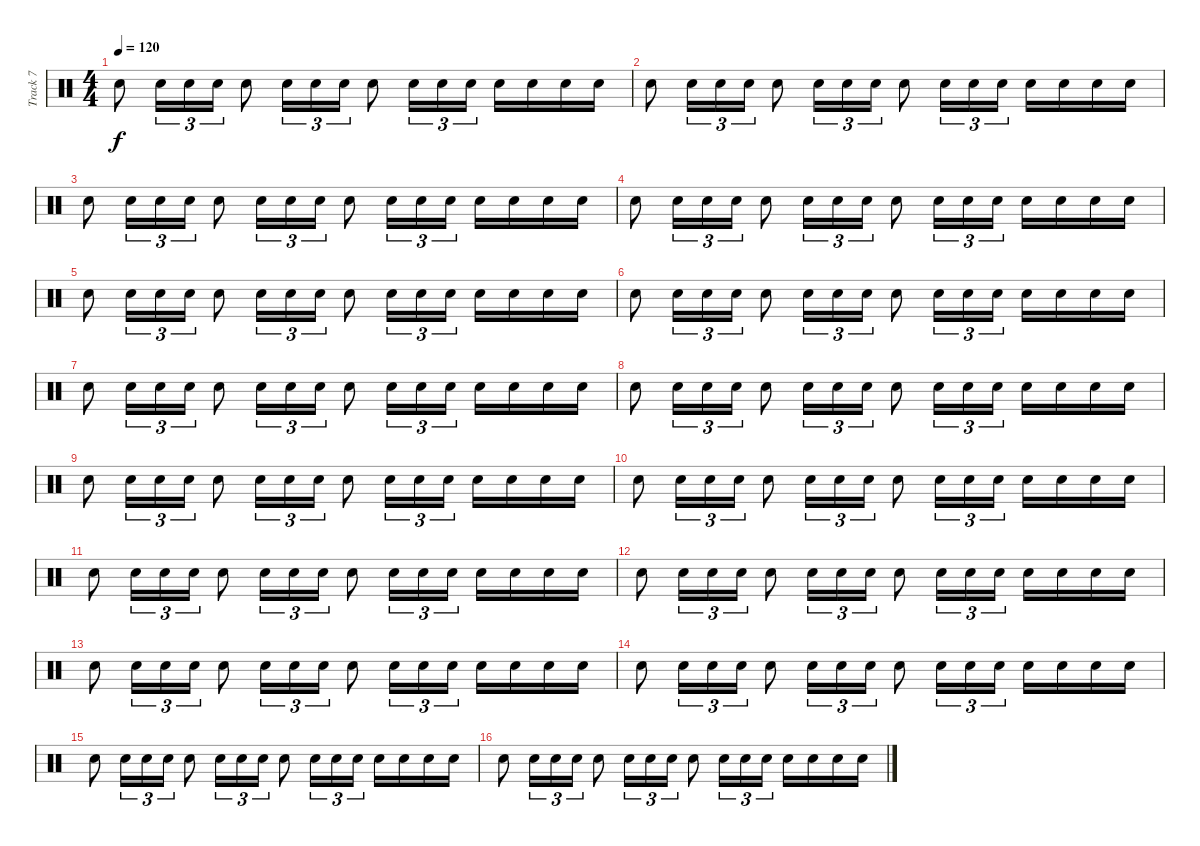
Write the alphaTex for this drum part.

\track ("Track 7" "Track 7") {instrument percussion}
\staff {score}
\articulation defaults
\ts (4 4)
\tempo 120
\clef neutral
\ks c "Snare (hit) 2".8{dy f} "Snare (hit) 2".16{tu (3 2)} "Snare (hit) 2".16{tu (3 2)} "Snare (hit) 2".16{tu (3 2)} "Snare (hit) 2".8 "Snare (hit) 2".16{tu (3 2)} "Snare (hit) 2".16{tu (3 2)} "Snare (hit) 2".16{tu (3 2)} "Snare (hit) 2".8 "Snare (hit) 2".16{tu (3 2)} "Snare (hit) 2".16{tu (3 2)} "Snare (hit) 2".16{tu (3 2)} "Snare (hit) 2".16 "Snare (hit) 2".16 "Snare (hit) 2".16 "Snare (hit) 2".16
|
"Snare (hit) 2".8 "Snare (hit) 2".16{tu (3 2)} "Snare (hit) 2".16{tu (3 2)} "Snare (hit) 2".16{tu (3 2)} "Snare (hit) 2".8 "Snare (hit) 2".16{tu (3 2)} "Snare (hit) 2".16{tu (3 2)} "Snare (hit) 2".16{tu (3 2)} "Snare (hit) 2".8 "Snare (hit) 2".16{tu (3 2)} "Snare (hit) 2".16{tu (3 2)} "Snare (hit) 2".16{tu (3 2)} "Snare (hit) 2".16 "Snare (hit) 2".16 "Snare (hit) 2".16 "Snare (hit) 2".16 |
"Snare (hit) 2".8 "Snare (hit) 2".16{tu (3 2)} "Snare (hit) 2".16{tu (3 2)} "Snare (hit) 2".16{tu (3 2)} "Snare (hit) 2".8 "Snare (hit) 2".16{tu (3 2)} "Snare (hit) 2".16{tu (3 2)} "Snare (hit) 2".16{tu (3 2)} "Snare (hit) 2".8 "Snare (hit) 2".16{tu (3 2)} "Snare (hit) 2".16{tu (3 2)} "Snare (hit) 2".16{tu (3 2)} "Snare (hit) 2".16 "Snare (hit) 2".16 "Snare (hit) 2".16 "Snare (hit) 2".16 |
"Snare (hit) 2".8 "Snare (hit) 2".16{tu (3 2)} "Snare (hit) 2".16{tu (3 2)} "Snare (hit) 2".16{tu (3 2)} "Snare (hit) 2".8 "Snare (hit) 2".16{tu (3 2)} "Snare (hit) 2".16{tu (3 2)} "Snare (hit) 2".16{tu (3 2)} "Snare (hit) 2".8 "Snare (hit) 2".16{tu (3 2)} "Snare (hit) 2".16{tu (3 2)} "Snare (hit) 2".16{tu (3 2)} "Snare (hit) 2".16 "Snare (hit) 2".16 "Snare (hit) 2".16 "Snare (hit) 2".16 |
"Snare (hit) 2".8 "Snare (hit) 2".16{tu (3 2)} "Snare (hit) 2".16{tu (3 2)} "Snare (hit) 2".16{tu (3 2)} "Snare (hit) 2".8 "Snare (hit) 2".16{tu (3 2)} "Snare (hit) 2".16{tu (3 2)} "Snare (hit) 2".16{tu (3 2)} "Snare (hit) 2".8 "Snare (hit) 2".16{tu (3 2)} "Snare (hit) 2".16{tu (3 2)} "Snare (hit) 2".16{tu (3 2)} "Snare (hit) 2".16 "Snare (hit) 2".16 "Snare (hit) 2".16 "Snare (hit) 2".16 |
"Snare (hit) 2".8 "Snare (hit) 2".16{tu (3 2)} "Snare (hit) 2".16{tu (3 2)} "Snare (hit) 2".16{tu (3 2)} "Snare (hit) 2".8 "Snare (hit) 2".16{tu (3 2)} "Snare (hit) 2".16{tu (3 2)} "Snare (hit) 2".16{tu (3 2)} "Snare (hit) 2".8 "Snare (hit) 2".16{tu (3 2)} "Snare (hit) 2".16{tu (3 2)} "Snare (hit) 2".16{tu (3 2)} "Snare (hit) 2".16 "Snare (hit) 2".16 "Snare (hit) 2".16 "Snare (hit) 2".16 |
"Snare (hit) 2".8 "Snare (hit) 2".16{tu (3 2)} "Snare (hit) 2".16{tu (3 2)} "Snare (hit) 2".16{tu (3 2)} "Snare (hit) 2".8 "Snare (hit) 2".16{tu (3 2)} "Snare (hit) 2".16{tu (3 2)} "Snare (hit) 2".16{tu (3 2)} "Snare (hit) 2".8 "Snare (hit) 2".16{tu (3 2)} "Snare (hit) 2".16{tu (3 2)} "Snare (hit) 2".16{tu (3 2)} "Snare (hit) 2".16 "Snare (hit) 2".16 "Snare (hit) 2".16 "Snare (hit) 2".16 |
"Snare (hit) 2".8 "Snare (hit) 2".16{tu (3 2)} "Snare (hit) 2".16{tu (3 2)} "Snare (hit) 2".16{tu (3 2)} "Snare (hit) 2".8 "Snare (hit) 2".16{tu (3 2)} "Snare (hit) 2".16{tu (3 2)} "Snare (hit) 2".16{tu (3 2)} "Snare (hit) 2".8 "Snare (hit) 2".16{tu (3 2)} "Snare (hit) 2".16{tu (3 2)} "Snare (hit) 2".16{tu (3 2)} "Snare (hit) 2".16 "Snare (hit) 2".16 "Snare (hit) 2".16 "Snare (hit) 2".16 |
"Snare (hit) 2".8 "Snare (hit) 2".16{tu (3 2)} "Snare (hit) 2".16{tu (3 2)} "Snare (hit) 2".16{tu (3 2)} "Snare (hit) 2".8 "Snare (hit) 2".16{tu (3 2)} "Snare (hit) 2".16{tu (3 2)} "Snare (hit) 2".16{tu (3 2)} "Snare (hit) 2".8 "Snare (hit) 2".16{tu (3 2)} "Snare (hit) 2".16{tu (3 2)} "Snare (hit) 2".16{tu (3 2)} "Snare (hit) 2".16 "Snare (hit) 2".16 "Snare (hit) 2".16 "Snare (hit) 2".16 |
"Snare (hit) 2".8 "Snare (hit) 2".16{tu (3 2)} "Snare (hit) 2".16{tu (3 2)} "Snare (hit) 2".16{tu (3 2)} "Snare (hit) 2".8 "Snare (hit) 2".16{tu (3 2)} "Snare (hit) 2".16{tu (3 2)} "Snare (hit) 2".16{tu (3 2)} "Snare (hit) 2".8 "Snare (hit) 2".16{tu (3 2)} "Snare (hit) 2".16{tu (3 2)} "Snare (hit) 2".16{tu (3 2)} "Snare (hit) 2".16 "Snare (hit) 2".16 "Snare (hit) 2".16 "Snare (hit) 2".16 |
"Snare (hit) 2".8 "Snare (hit) 2".16{tu (3 2)} "Snare (hit) 2".16{tu (3 2)} "Snare (hit) 2".16{tu (3 2)} "Snare (hit) 2".8 "Snare (hit) 2".16{tu (3 2)} "Snare (hit) 2".16{tu (3 2)} "Snare (hit) 2".16{tu (3 2)} "Snare (hit) 2".8 "Snare (hit) 2".16{tu (3 2)} "Snare (hit) 2".16{tu (3 2)} "Snare (hit) 2".16{tu (3 2)} "Snare (hit) 2".16 "Snare (hit) 2".16 "Snare (hit) 2".16 "Snare (hit) 2".16 |
"Snare (hit) 2".8 "Snare (hit) 2".16{tu (3 2)} "Snare (hit) 2".16{tu (3 2)} "Snare (hit) 2".16{tu (3 2)} "Snare (hit) 2".8 "Snare (hit) 2".16{tu (3 2)} "Snare (hit) 2".16{tu (3 2)} "Snare (hit) 2".16{tu (3 2)} "Snare (hit) 2".8 "Snare (hit) 2".16{tu (3 2)} "Snare (hit) 2".16{tu (3 2)} "Snare (hit) 2".16{tu (3 2)} "Snare (hit) 2".16 "Snare (hit) 2".16 "Snare (hit) 2".16 "Snare (hit) 2".16 |
"Snare (hit) 2".8 "Snare (hit) 2".16{tu (3 2)} "Snare (hit) 2".16{tu (3 2)} "Snare (hit) 2".16{tu (3 2)} "Snare (hit) 2".8 "Snare (hit) 2".16{tu (3 2)} "Snare (hit) 2".16{tu (3 2)} "Snare (hit) 2".16{tu (3 2)} "Snare (hit) 2".8 "Snare (hit) 2".16{tu (3 2)} "Snare (hit) 2".16{tu (3 2)} "Snare (hit) 2".16{tu (3 2)} "Snare (hit) 2".16 "Snare (hit) 2".16 "Snare (hit) 2".16 "Snare (hit) 2".16 |
"Snare (hit) 2".8 "Snare (hit) 2".16{tu (3 2)} "Snare (hit) 2".16{tu (3 2)} "Snare (hit) 2".16{tu (3 2)} "Snare (hit) 2".8 "Snare (hit) 2".16{tu (3 2)} "Snare (hit) 2".16{tu (3 2)} "Snare (hit) 2".16{tu (3 2)} "Snare (hit) 2".8 "Snare (hit) 2".16{tu (3 2)} "Snare (hit) 2".16{tu (3 2)} "Snare (hit) 2".16{tu (3 2)} "Snare (hit) 2".16 "Snare (hit) 2".16 "Snare (hit) 2".16 "Snare (hit) 2".16 |
"Snare (hit) 2".8 "Snare (hit) 2".16{tu (3 2)} "Snare (hit) 2".16{tu (3 2)} "Snare (hit) 2".16{tu (3 2)} "Snare (hit) 2".8 "Snare (hit) 2".16{tu (3 2)} "Snare (hit) 2".16{tu (3 2)} "Snare (hit) 2".16{tu (3 2)} "Snare (hit) 2".8 "Snare (hit) 2".16{tu (3 2)} "Snare (hit) 2".16{tu (3 2)} "Snare (hit) 2".16{tu (3 2)} "Snare (hit) 2".16 "Snare (hit) 2".16 "Snare (hit) 2".16 "Snare (hit) 2".16 |
"Snare (hit) 2".8 "Snare (hit) 2".16{tu (3 2)} "Snare (hit) 2".16{tu (3 2)} "Snare (hit) 2".16{tu (3 2)} "Snare (hit) 2".8 "Snare (hit) 2".16{tu (3 2)} "Snare (hit) 2".16{tu (3 2)} "Snare (hit) 2".16{tu (3 2)} "Snare (hit) 2".8 "Snare (hit) 2".16{tu (3 2)} "Snare (hit) 2".16{tu (3 2)} "Snare (hit) 2".16{tu (3 2)} "Snare (hit) 2".16 "Snare (hit) 2".16 "Snare (hit) 2".16 "Snare (hit) 2".16
